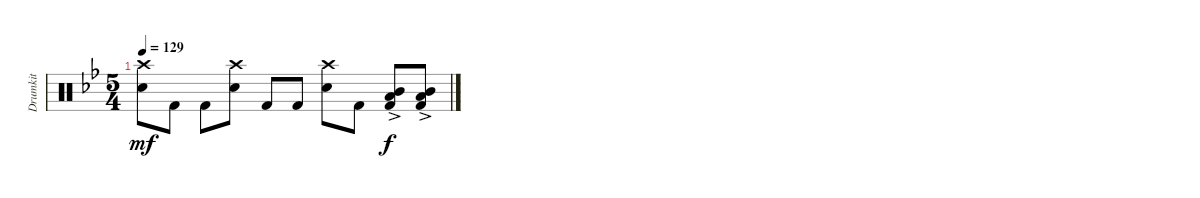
\track ("Drumkit" "Drumkit") {instrument percussion}
\staff {score}
\articulation defaults
\ts (5 4)
\tempo 129
\clef neutral
\ks bb
("Crash high (hit)" "Snare (hit) 2").8{dy mf} "Kick (hit) 2".8 "Kick (hit) 2".8 ("Crash high (hit)" "Snare (hit) 2").8 "Kick (hit) 2".8 "Kick (hit) 2".8 ("Crash high (hit)" "Snare (hit) 2").8 "Kick (hit) 2".8 ("Low Tom (hit)"{ac} "Mid Tom (hit)"{ac} "Kick (hit) 2"{ac}).8{dy f} ("Low Tom (hit)"{ac} "Mid Tom (hit)"{ac} "Kick (hit) 2"{ac}).8
